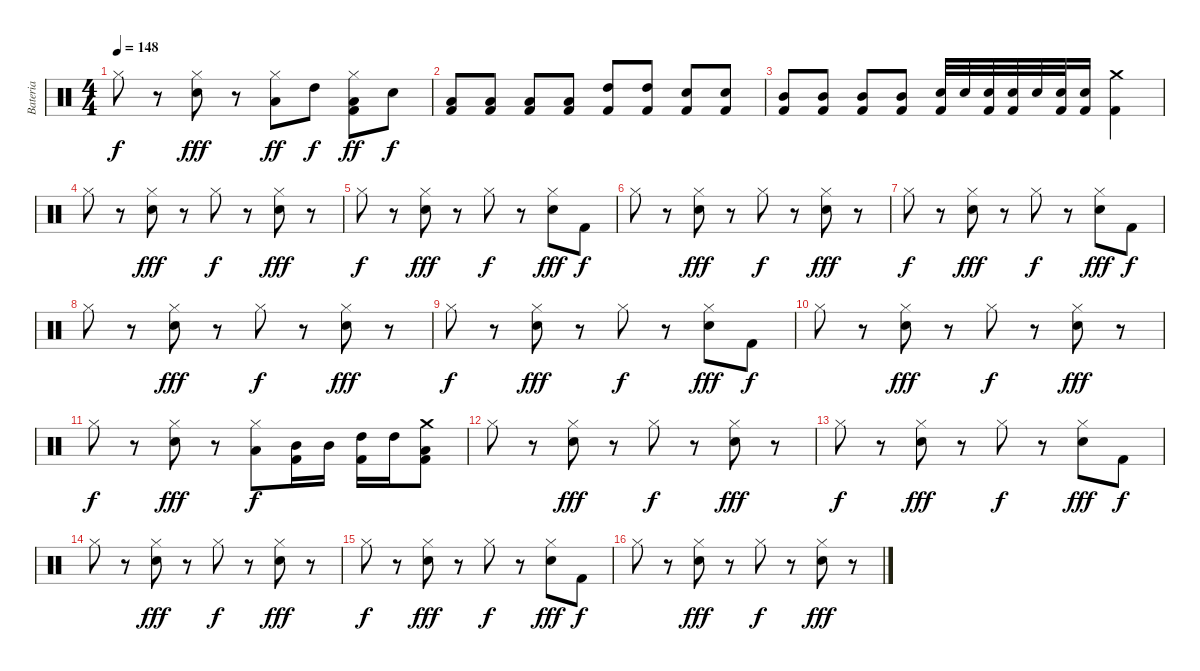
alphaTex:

\track ("Bateria" "Bateria") {instrument percussion}
\staff {score}
\articulation defaults
\ts (4 4)
\tempo 148
\clef neutral
\ks c "Hi-Hat (closed)".8{dy f}
r.8 ("Hi-Hat (closed)" "Electric Snare (hit)").8{dy fff} r.8 ("Hi-Hat (closed)" "Low Tom (hit)").8{dy ff} "High Tom (hit)".8{dy f} ("Hi-Hat (closed)" "Low Tom (hit)" "Kick (hit) 2").8{dy ff} "Snare (hit) 2".8{dy f} |
("Low Tom (hit)" "Kick (hit) 2").8 ("Low Tom (hit)" "Kick (hit) 2").8 ("Low Tom (hit)" "Kick (hit) 2").8 ("Low Tom (hit)" "Kick (hit) 2").8 ("High Tom (hit)" "Kick (hit) 2").8 ("High Tom (hit)" "Kick (hit) 2").8 ("Snare (hit) 2" "Kick (hit) 2").8 ("Snare (hit) 2" "Kick (hit) 2").8 |
("Mid Tom (hit)" "Kick (hit) 2").8 ("Mid Tom (hit)" "Kick (hit) 2").8 ("Mid Tom (hit)" "Kick (hit) 2").8 ("Mid Tom (hit)" "Kick (hit) 2").8 ("Electric Snare (hit)" "Kick (hit) 2").32 "Electric Snare (hit)".32 ("Electric Snare (hit)" "Kick (hit) 2").32 ("Electric Snare (hit)" "Kick (hit) 2").32 "Electric Snare (hit)".32 ("Electric Snare (hit)" "Kick (hit) 2").32 ("Electric Snare (hit)" "Kick (hit) 2").16 ("Crash medium (hit)" "Kick (hit) 2").4 |
"Hi-Hat (closed)".8 r.8 ("Hi-Hat (closed)" "Electric Snare (hit)").8{dy fff} r.8 "Hi-Hat (closed)".8{dy f} r.8 ("Hi-Hat (closed)" "Electric Snare (hit)").8{dy fff} r.8 |
"Hi-Hat (closed)".8{dy f} r.8 ("Hi-Hat (closed)" "Electric Snare (hit)").8{dy fff} r.8 "Hi-Hat (closed)".8{dy f} r.8 ("Hi-Hat (closed)" "Electric Snare (hit)").8{dy fff} "Kick (hit) 2".8{dy f} |
"Hi-Hat (closed)".8 r.8 ("Hi-Hat (closed)" "Electric Snare (hit)").8{dy fff} r.8 "Hi-Hat (closed)".8{dy f} r.8 ("Hi-Hat (closed)" "Electric Snare (hit)").8{dy fff} r.8 |
"Hi-Hat (closed)".8{dy f} r.8 ("Hi-Hat (closed)" "Electric Snare (hit)").8{dy fff} r.8 "Hi-Hat (closed)".8{dy f} r.8 ("Hi-Hat (closed)" "Electric Snare (hit)").8{dy fff} "Kick (hit) 2".8{dy f} |
"Hi-Hat (closed)".8 r.8 ("Hi-Hat (closed)" "Electric Snare (hit)").8{dy fff} r.8 "Hi-Hat (closed)".8{dy f} r.8 ("Hi-Hat (closed)" "Electric Snare (hit)").8{dy fff} r.8 |
"Hi-Hat (closed)".8{dy f} r.8 ("Hi-Hat (closed)" "Electric Snare (hit)").8{dy fff} r.8 "Hi-Hat (closed)".8{dy f} r.8 ("Hi-Hat (closed)" "Electric Snare (hit)").8{dy fff} "Kick (hit) 2".8{dy f} |
"Hi-Hat (closed)".8 r.8 ("Hi-Hat (closed)" "Electric Snare (hit)").8{dy fff} r.8 "Hi-Hat (closed)".8{dy f} r.8 ("Hi-Hat (closed)" "Electric Snare (hit)").8{dy fff} r.8 |
"Hi-Hat (closed)".8{dy f} r.8 ("Hi-Hat (closed)" "Electric Snare (hit)").8{dy fff} r.8 ("Hi-Hat (closed)" "Low Tom (hit)").8{dy f} ("Mid Tom (hit)" "Kick (hit) 2").16 "Mid Tom (hit)".16 ("High Tom (hit)" "Kick (hit) 2").16 "High Tom (hit)".16 ("Crash medium (hit)" "Low Tom (hit)" "Kick (hit) 2").8 |
"Hi-Hat (closed)".8 r.8 ("Hi-Hat (closed)" "Electric Snare (hit)").8{dy fff} r.8 "Hi-Hat (closed)".8{dy f} r.8 ("Hi-Hat (closed)" "Electric Snare (hit)").8{dy fff} r.8 |
"Hi-Hat (closed)".8{dy f} r.8 ("Hi-Hat (closed)" "Electric Snare (hit)").8{dy fff} r.8 "Hi-Hat (closed)".8{dy f} r.8 ("Hi-Hat (closed)" "Electric Snare (hit)").8{dy fff} "Kick (hit) 2".8{dy f} |
"Hi-Hat (closed)".8 r.8 ("Hi-Hat (closed)" "Electric Snare (hit)").8{dy fff} r.8 "Hi-Hat (closed)".8{dy f} r.8 ("Hi-Hat (closed)" "Electric Snare (hit)").8{dy fff} r.8 |
"Hi-Hat (closed)".8{dy f} r.8 ("Hi-Hat (closed)" "Electric Snare (hit)").8{dy fff} r.8 "Hi-Hat (closed)".8{dy f} r.8 ("Hi-Hat (closed)" "Electric Snare (hit)").8{dy fff} "Kick (hit) 2".8{dy f} |
"Hi-Hat (closed)".8 r.8 ("Hi-Hat (closed)" "Electric Snare (hit)").8{dy fff} r.8 "Hi-Hat (closed)".8{dy f} r.8 ("Hi-Hat (closed)" "Electric Snare (hit)").8{dy fff} r.8
